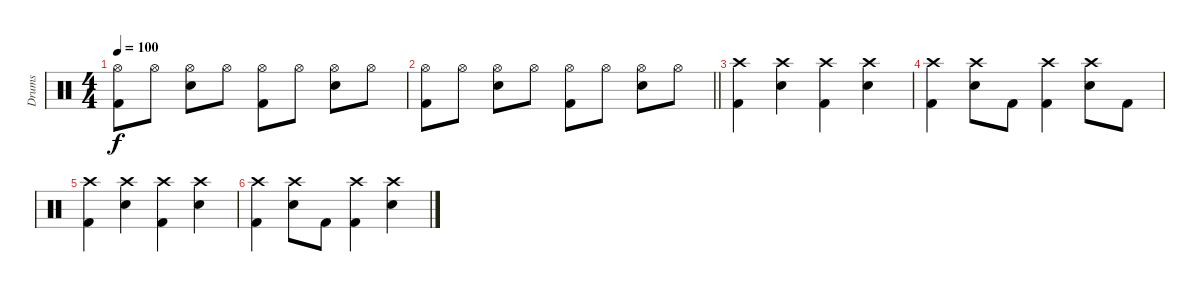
\track ("Drums" "Drums") {instrument percussion}
\staff {score}
\articulation defaults
\ts (4 4)
\tempo 100
\clef neutral
\ks c
("Hi-Hat (open)" "Kick (hit) 2").8{dy f} "Hi-Hat (open)".8 ("Hi-Hat (open)" "Electric Snare (hit)").8 "Hi-Hat (open)".8 ("Hi-Hat (open)" "Kick (hit) 2").8 "Hi-Hat (open)".8 ("Hi-Hat (open)" "Electric Snare (hit)").8 "Hi-Hat (open)".8 |
\barLineRight lightlight
("Hi-Hat (open)" "Kick (hit) 2").8 "Hi-Hat (open)".8 ("Hi-Hat (open)" "Electric Snare (hit)").8 "Hi-Hat (open)".8 ("Hi-Hat (open)" "Kick (hit) 2").8 "Hi-Hat (open)".8 ("Hi-Hat (open)" "Electric Snare (hit)").8 "Hi-Hat (open)".8 |
("Crash high (hit)" "Kick (hit) 2").4 ("Crash high (hit)" "Electric Snare (hit)").4 ("Crash high (hit)" "Kick (hit) 2").4 ("Crash high (hit)" "Electric Snare (hit)").4 |
("Crash high (hit)" "Kick (hit) 2").4 ("Crash high (hit)" "Electric Snare (hit)").8 "Kick (hit) 2".8 ("Crash high (hit)" "Kick (hit) 2").4 ("Crash high (hit)" "Electric Snare (hit)").8 "Kick (hit) 2".8 |
("Crash high (hit)" "Kick (hit) 2").4 ("Crash high (hit)" "Electric Snare (hit)").4 ("Crash high (hit)" "Kick (hit) 2").4 ("Crash high (hit)" "Electric Snare (hit)").4 |
("Crash high (hit)" "Kick (hit) 2").4 ("Crash high (hit)" "Electric Snare (hit)").8 "Kick (hit) 2".8 ("Crash high (hit)" "Kick (hit) 2").4 ("Crash high (hit)" "Electric Snare (hit)").4
